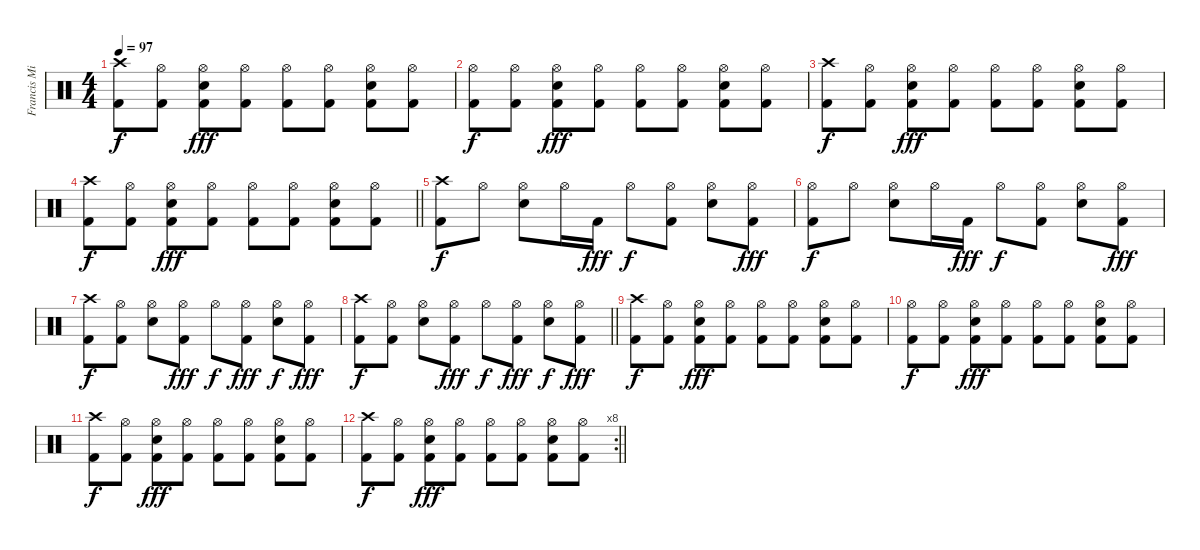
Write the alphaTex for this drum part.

\track ("Francis Mineau" "Francis Mi") {instrument percussion}
\staff {score}
\articulation defaults
\ts (4 4)
\tempo 97
\clef neutral
\ks c
("Crash high (hit)" "Kick (hit) 2").8{dy f} ("Hi-Hat (open)" "Kick (hit) 2").8 ("Hi-Hat (open)" "Snare (hit) 2" "Kick (hit) 2").8{dy fff} ("Hi-Hat (open)" "Kick (hit) 2").8 ("Hi-Hat (open)" "Kick (hit) 2").8 ("Hi-Hat (open)" "Kick (hit) 2").8 ("Hi-Hat (open)" "Snare (hit) 2" "Kick (hit) 2").8 ("Hi-Hat (open)" "Kick (hit) 2").8 |
("Hi-Hat (open)" "Kick (hit) 2").8{dy f} ("Hi-Hat (open)" "Kick (hit) 2").8 ("Hi-Hat (open)" "Snare (hit) 2" "Kick (hit) 2").8{dy fff} ("Hi-Hat (open)" "Kick (hit) 2").8 ("Hi-Hat (open)" "Kick (hit) 2").8 ("Hi-Hat (open)" "Kick (hit) 2").8 ("Hi-Hat (open)" "Snare (hit) 2" "Kick (hit) 2").8 ("Hi-Hat (open)" "Kick (hit) 2").8 |
("Crash high (hit)" "Kick (hit) 2").8{dy f} ("Hi-Hat (open)" "Kick (hit) 2").8 ("Hi-Hat (open)" "Snare (hit) 2" "Kick (hit) 2").8{dy fff} ("Hi-Hat (open)" "Kick (hit) 2").8 ("Hi-Hat (open)" "Kick (hit) 2").8 ("Hi-Hat (open)" "Kick (hit) 2").8 ("Hi-Hat (open)" "Snare (hit) 2" "Kick (hit) 2").8 ("Hi-Hat (open)" "Kick (hit) 2").8 |
\barLineRight lightlight
("Crash high (hit)" "Kick (hit) 2").8{dy f} ("Hi-Hat (open)" "Kick (hit) 2").8 ("Hi-Hat (open)" "Snare (hit) 2" "Kick (hit) 2").8{dy fff} ("Hi-Hat (open)" "Kick (hit) 2").8 ("Hi-Hat (open)" "Kick (hit) 2").8 ("Hi-Hat (open)" "Kick (hit) 2").8 ("Hi-Hat (open)" "Snare (hit) 2" "Kick (hit) 2").8 ("Hi-Hat (open)" "Kick (hit) 2").8 |
("Crash high (hit)" "Kick (hit) 2").8{dy f} "Hi-Hat (open)".8 ("Hi-Hat (open)" "Snare (hit) 2").8 "Hi-Hat (open)".16 "Kick (hit) 2".16{dy fff} "Hi-Hat (open)".8{dy f} ("Hi-Hat (open)" "Kick (hit) 2").8 ("Hi-Hat (open)" "Snare (hit) 2").8 ("Hi-Hat (open)" "Kick (hit) 2").8{dy fff} |
("Hi-Hat (open)" "Kick (hit) 2").8{dy f} "Hi-Hat (open)".8 ("Hi-Hat (open)" "Snare (hit) 2").8 "Hi-Hat (open)".16 "Kick (hit) 2".16{dy fff} "Hi-Hat (open)".8{dy f} ("Hi-Hat (open)" "Kick (hit) 2").8 ("Hi-Hat (open)" "Snare (hit) 2").8 ("Hi-Hat (open)" "Kick (hit) 2").8{dy fff} |
("Crash high (hit)" "Kick (hit) 2").8{dy f} ("Hi-Hat (open)" "Kick (hit) 2").8 ("Hi-Hat (open)" "Snare (hit) 2").8 ("Hi-Hat (open)" "Kick (hit) 2").8{dy fff} "Hi-Hat (open)".8{dy f} ("Hi-Hat (open)" "Kick (hit) 2").8{dy fff} ("Hi-Hat (open)" "Snare (hit) 2").8{dy f} ("Hi-Hat (open)" "Kick (hit) 2").8{dy fff} |
\barLineRight lightlight
("Crash high (hit)" "Kick (hit) 2").8{dy f} ("Hi-Hat (open)" "Kick (hit) 2").8 ("Hi-Hat (open)" "Snare (hit) 2").8 ("Hi-Hat (open)" "Kick (hit) 2").8{dy fff} "Hi-Hat (open)".8{dy f} ("Hi-Hat (open)" "Kick (hit) 2").8{dy fff} ("Hi-Hat (open)" "Snare (hit) 2").8{dy f} ("Hi-Hat (open)" "Kick (hit) 2").8{dy fff} |
("Crash high (hit)" "Kick (hit) 2").8{dy f} ("Hi-Hat (open)" "Kick (hit) 2").8 ("Hi-Hat (open)" "Snare (hit) 2" "Kick (hit) 2").8{dy fff} ("Hi-Hat (open)" "Kick (hit) 2").8 ("Hi-Hat (open)" "Kick (hit) 2").8 ("Hi-Hat (open)" "Kick (hit) 2").8 ("Hi-Hat (open)" "Snare (hit) 2" "Kick (hit) 2").8 ("Hi-Hat (open)" "Kick (hit) 2").8 |
("Hi-Hat (open)" "Kick (hit) 2").8{dy f} ("Hi-Hat (open)" "Kick (hit) 2").8 ("Hi-Hat (open)" "Snare (hit) 2" "Kick (hit) 2").8{dy fff} ("Hi-Hat (open)" "Kick (hit) 2").8 ("Hi-Hat (open)" "Kick (hit) 2").8 ("Hi-Hat (open)" "Kick (hit) 2").8 ("Hi-Hat (open)" "Snare (hit) 2" "Kick (hit) 2").8 ("Hi-Hat (open)" "Kick (hit) 2").8 |
("Crash high (hit)" "Kick (hit) 2").8{dy f} ("Hi-Hat (open)" "Kick (hit) 2").8 ("Hi-Hat (open)" "Snare (hit) 2" "Kick (hit) 2").8{dy fff} ("Hi-Hat (open)" "Kick (hit) 2").8 ("Hi-Hat (open)" "Kick (hit) 2").8 ("Hi-Hat (open)" "Kick (hit) 2").8 ("Hi-Hat (open)" "Snare (hit) 2" "Kick (hit) 2").8 ("Hi-Hat (open)" "Kick (hit) 2").8 |
\rc 8
\barLineRight lightlight
("Crash high (hit)" "Kick (hit) 2").8{dy f} ("Hi-Hat (open)" "Kick (hit) 2").8 ("Hi-Hat (open)" "Snare (hit) 2" "Kick (hit) 2").8{dy fff} ("Hi-Hat (open)" "Kick (hit) 2").8 ("Hi-Hat (open)" "Kick (hit) 2").8 ("Hi-Hat (open)" "Kick (hit) 2").8 ("Hi-Hat (open)" "Snare (hit) 2" "Kick (hit) 2").8 ("Hi-Hat (open)" "Kick (hit) 2").8
